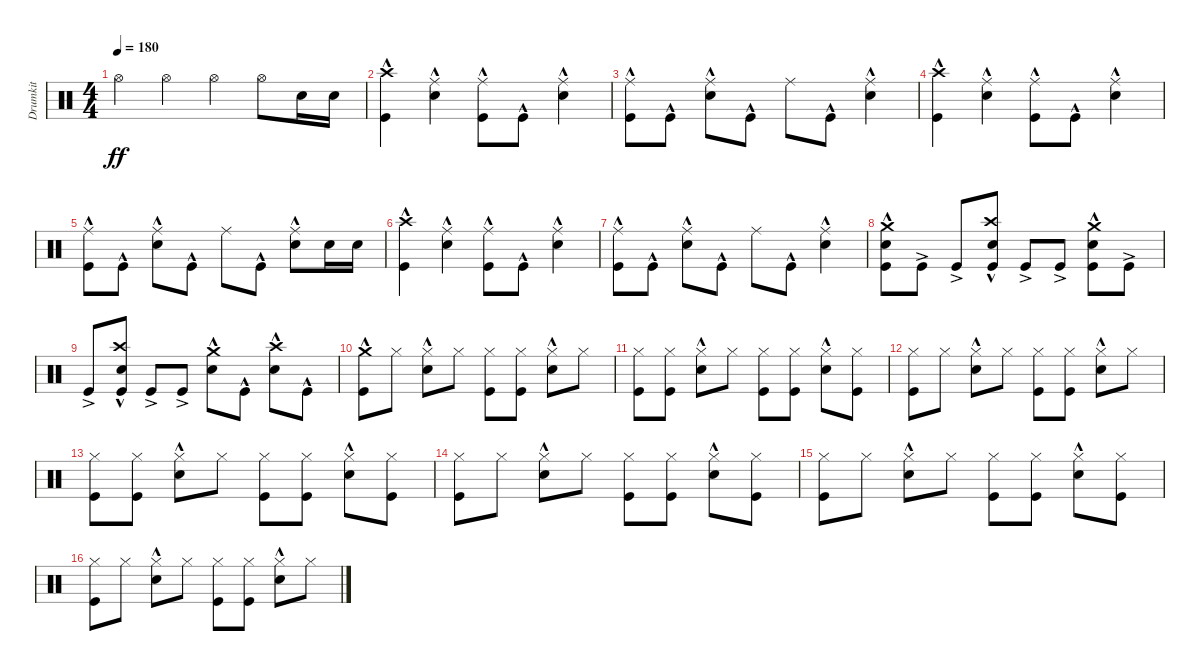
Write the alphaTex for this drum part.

\track ("Drumkit" "Drumkit") {instrument percussion}
\staff {score}
\articulation defaults
\ts (4 4)
\tempo 180
\clef neutral
\ks c "Hi-Hat (open)".4{dy ff} "Hi-Hat (open)".4 "Hi-Hat (open)".4 "Hi-Hat (open)".8 "Snare (hit) 2".16 "Snare (hit) 2".16
|
("Crash high (hit)"{hac} "Kick (hit)"{hac}).4 ("Ride (middle)" "Snare (hit) 2"{hac}).4 ("Ride (middle)" "Kick (hit)"{hac}).8 "Kick (hit)"{hac}.8 ("Ride (middle)" "Snare (hit) 2"{hac}).4 |
("Ride (middle)" "Kick (hit)"{hac}).8 "Kick (hit)"{hac}.8 ("Ride (middle)" "Snare (hit) 2"{hac}).8 "Kick (hit)"{hac}.8 "Ride (middle)".8 "Kick (hit)"{hac}.8 ("Ride (middle)" "Snare (hit) 2"{hac}).4 |
("Crash high (hit)"{hac} "Kick (hit)"{hac}).4 ("Ride (middle)" "Snare (hit) 2"{hac}).4 ("Ride (middle)" "Kick (hit)"{hac}).8 "Kick (hit)"{hac}.8 ("Ride (middle)" "Snare (hit) 2"{hac}).4 |
("Ride (middle)" "Kick (hit)"{hac}).8 "Kick (hit)"{hac}.8 ("Ride (middle)" "Snare (hit) 2"{hac}).8 "Kick (hit)"{hac}.8 "Ride (middle)".8 "Kick (hit)"{hac}.8 ("Ride (middle)" "Snare (hit) 2"{hac}).8 "Snare (hit) 2".16 "Snare (hit) 2".16 |
("Crash high (hit)"{hac} "Kick (hit)"{hac}).4 ("Ride (middle)" "Snare (hit) 2"{hac}).4 ("Ride (middle)" "Kick (hit)"{hac}).8 "Kick (hit)"{hac}.8 ("Ride (middle)" "Snare (hit) 2"{hac}).4 |
("Ride (middle)" "Kick (hit)"{hac}).8 "Kick (hit)"{hac}.8 ("Ride (middle)" "Snare (hit) 2"{hac}).8 "Kick (hit)"{hac}.8 "Ride (middle)".8 "Kick (hit)"{hac}.8 ("Ride (middle)" "Snare (hit) 2"{hac}).4 |
("Snare (hit) 2"{hac} "Kick (hit)"{hac} "Crash medium (hit)"{hac}).8 "Kick (hit)"{ac}.8 "Kick (hit)"{ac}.8 ("Snare (hit) 2"{hac} "Kick (hit)"{hac} "Crash high (hit)"{hac}).8 "Kick (hit)"{ac}.8 "Kick (hit)"{ac}.8 ("Snare (hit) 2"{hac} "Kick (hit)"{hac} "Crash medium (hit)"{hac}).8 "Kick (hit)"{ac}.8 |
"Kick (hit)"{ac}.8 ("Kick (hit)"{hac} "Snare (hit) 2"{hac} "Crash high (hit)"{hac}).8 "Kick (hit)"{ac}.8 "Kick (hit)"{ac}.8 ("Snare (hit) 2"{hac} "Crash medium (hit)"{hac}).8 "Kick (hit)"{hac}.8 ("Snare (hit) 2"{hac} "Crash high (hit)"{hac}).8 "Kick (hit)"{hac}.8 |
("Kick (hit)"{hac} "Crash medium (hit)"{hac}).8 "Hi-Hat (closed)".8 ("Hi-Hat (closed)" "Snare (hit) 2"{hac}).8 "Hi-Hat (closed)".8 ("Hi-Hat (closed)" "Kick (hit)").8 ("Hi-Hat (closed)" "Kick (hit)").8 ("Hi-Hat (closed)" "Snare (hit) 2"{hac}).8 "Hi-Hat (closed)".8 |
("Hi-Hat (closed)" "Kick (hit)").8 ("Hi-Hat (closed)" "Kick (hit)").8 ("Hi-Hat (closed)" "Snare (hit) 2"{hac}).8 "Hi-Hat (closed)".8 ("Hi-Hat (closed)" "Kick (hit)").8 ("Hi-Hat (closed)" "Kick (hit)").8 ("Hi-Hat (closed)" "Snare (hit) 2"{hac}).8 ("Hi-Hat (closed)" "Kick (hit)").8 |
("Hi-Hat (closed)" "Kick (hit)").8 "Hi-Hat (closed)".8 ("Hi-Hat (closed)" "Snare (hit) 2"{hac}).8 "Hi-Hat (closed)".8 ("Hi-Hat (closed)" "Kick (hit)").8 ("Hi-Hat (closed)" "Kick (hit)").8 ("Hi-Hat (closed)" "Snare (hit) 2"{hac}).8 "Hi-Hat (closed)".8 |
("Hi-Hat (closed)" "Kick (hit)").8 ("Hi-Hat (closed)" "Kick (hit)").8 ("Hi-Hat (closed)" "Snare (hit) 2"{hac}).8 "Hi-Hat (closed)".8 ("Hi-Hat (closed)" "Kick (hit)").8 ("Hi-Hat (closed)" "Kick (hit)").8 ("Hi-Hat (closed)" "Snare (hit) 2"{hac}).8 ("Hi-Hat (closed)" "Kick (hit)").8 |
("Kick (hit)" "Hi-Hat (closed)").8 "Hi-Hat (closed)".8 ("Hi-Hat (closed)" "Snare (hit) 2"{hac}).8 "Hi-Hat (closed)".8 ("Hi-Hat (closed)" "Kick (hit)").8 ("Hi-Hat (closed)" "Kick (hit)").8 ("Hi-Hat (closed)" "Snare (hit) 2"{hac}).8 ("Hi-Hat (closed)" "Kick (hit)").8 |
("Kick (hit)" "Hi-Hat (closed)").8 "Hi-Hat (closed)".8 ("Hi-Hat (closed)" "Snare (hit) 2"{hac}).8 "Hi-Hat (closed)".8 ("Hi-Hat (closed)" "Kick (hit)").8 ("Hi-Hat (closed)" "Kick (hit)").8 ("Hi-Hat (closed)" "Snare (hit) 2"{hac}).8 ("Hi-Hat (closed)" "Kick (hit)").8 |
("Hi-Hat (closed)" "Kick (hit)").8 "Hi-Hat (closed)".8 ("Hi-Hat (closed)" "Snare (hit) 2"{hac}).8 "Hi-Hat (closed)".8 ("Hi-Hat (closed)" "Kick (hit)").8 ("Hi-Hat (closed)" "Kick (hit)").8 ("Hi-Hat (closed)" "Snare (hit) 2"{hac}).8 "Hi-Hat (closed)".8
